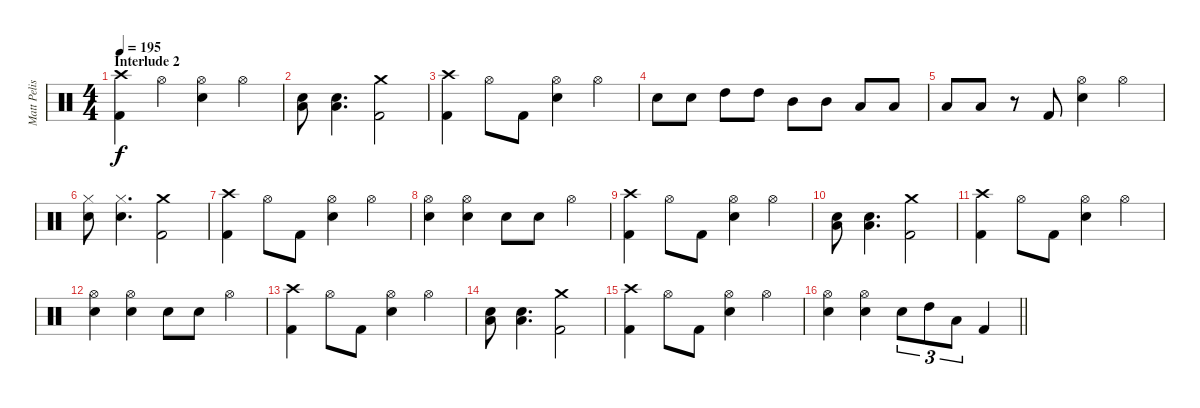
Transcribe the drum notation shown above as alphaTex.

\track ("Matt Pelissier" "Matt Pelis") {instrument percussion}
\staff {score}
\articulation defaults
\ts (4 4)
\section ("" "Interlude 2")
\tempo 195
\clef neutral
\ks c
("Crash high (hit)" "Kick (hit) 2").4{dy f} "Hi-Hat (open)".4 ("Hi-Hat (open)" "Electric Snare (hit)").4 "Hi-Hat (open)".4 |
("Low Tom (hit)" "Electric Snare (hit)").8 ("Low Tom (hit)" "Electric Snare (hit)").4{d} ("Crash medium (hit)" "Kick (hit) 2").2 |
("Crash high (hit)" "Kick (hit) 2").4 "Hi-Hat (open)".8 "Kick (hit) 2".8 ("Hi-Hat (open)" "Electric Snare (hit)").4 "Hi-Hat (open)".4 |
"Electric Snare (hit)".8 "Electric Snare (hit)".8 "High Tom (hit)".8 "High Tom (hit)".8 "Mid Tom (hit)".8 "Mid Tom (hit)".8 "Low Tom (hit)".8 "Low Tom (hit)".8 |
"Low Tom (hit)".8 "Low Tom (hit)".8 r.8 "Kick (hit) 2".8 ("Hi-Hat (open)" "Electric Snare (hit)").4 "Hi-Hat (open)".4 |
("Hi-Hat (closed)" "Electric Snare (hit)").8 ("Hi-Hat (closed)" "Electric Snare (hit)").4{d} ("Crash medium (hit)" "Kick (hit) 2").2 |
("Crash high (hit)" "Kick (hit) 2").4 "Hi-Hat (open)".8 "Kick (hit) 2".8 ("Hi-Hat (open)" "Electric Snare (hit)").4 "Hi-Hat (open)".4 |
("Hi-Hat (open)" "Electric Snare (hit)").4 ("Hi-Hat (open)" "Electric Snare (hit)").4 "Electric Snare (hit)".8 "Electric Snare (hit)".8 "Hi-Hat (open)".4 |
("Crash high (hit)" "Kick (hit) 2").4 "Hi-Hat (open)".8 "Kick (hit) 2".8 ("Hi-Hat (open)" "Electric Snare (hit)").4 "Hi-Hat (open)".4 |
("Low Tom (hit)" "Electric Snare (hit)").8 ("Low Tom (hit)" "Electric Snare (hit)").4{d} ("Crash medium (hit)" "Kick (hit) 2").2 |
("Crash high (hit)" "Kick (hit) 2").4 "Hi-Hat (open)".8 "Kick (hit) 2".8 ("Hi-Hat (open)" "Electric Snare (hit)").4 "Hi-Hat (open)".4 |
("Hi-Hat (open)" "Electric Snare (hit)").4 ("Hi-Hat (open)" "Electric Snare (hit)").4 "Electric Snare (hit)".8 "Electric Snare (hit)".8 "Hi-Hat (open)".4 |
("Crash high (hit)" "Kick (hit) 2").4 "Hi-Hat (open)".8 "Kick (hit) 2".8 ("Hi-Hat (open)" "Electric Snare (hit)").4 "Hi-Hat (open)".4 |
("Low Tom (hit)" "Electric Snare (hit)").8 ("Low Tom (hit)" "Electric Snare (hit)").4{d} ("Crash medium (hit)" "Kick (hit) 2").2 |
("Crash high (hit)" "Kick (hit) 2").4 "Hi-Hat (open)".8 "Kick (hit) 2".8 ("Hi-Hat (open)" "Electric Snare (hit)").4 "Hi-Hat (open)".4 |
\barLineRight lightlight
("Hi-Hat (open)" "Electric Snare (hit)").4 ("Hi-Hat (open)" "Electric Snare (hit)").4 "Electric Snare (hit)".8{tu (3 2)} "High Tom (hit)".8{tu (3 2)} "Low Tom (hit)".8{tu (3 2)} "Kick (hit) 2".4
